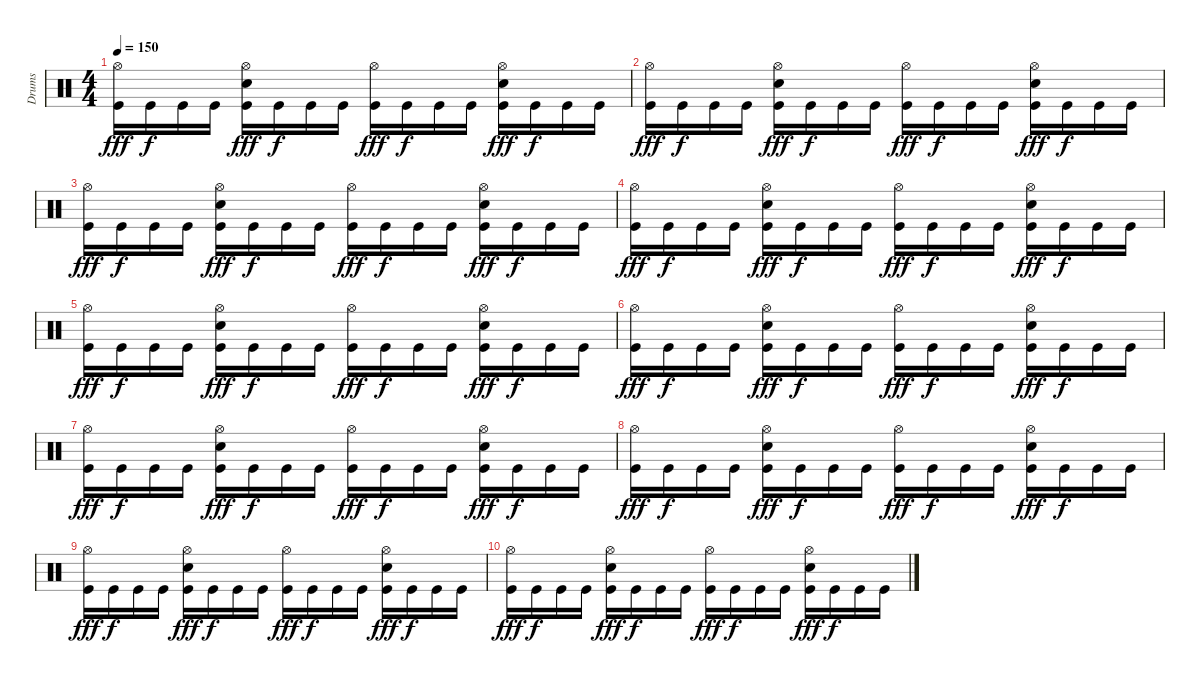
\track ("Drums" "Drums") {instrument percussion}
\staff {score}
\articulation defaults
\ts (4 4)
\tempo 150
\clef neutral
\ks c
("Hi-Hat (open)" "Kick (hit)").16{dy fff} "Kick (hit)".16{dy f} "Kick (hit)".16 "Kick (hit)".16 ("Hi-Hat (open)" "Snare (hit) 2" "Kick (hit)").16{dy fff} "Kick (hit)".16{dy f} "Kick (hit)".16 "Kick (hit)".16 ("Hi-Hat (open)" "Kick (hit)").16{dy fff} "Kick (hit)".16{dy f} "Kick (hit)".16 "Kick (hit)".16 ("Hi-Hat (open)" "Snare (hit) 2" "Kick (hit)").16{dy fff} "Kick (hit)".16{dy f} "Kick (hit)".16 "Kick (hit)".16 |
("Hi-Hat (open)" "Kick (hit)").16{dy fff} "Kick (hit)".16{dy f} "Kick (hit)".16 "Kick (hit)".16 ("Hi-Hat (open)" "Snare (hit) 2" "Kick (hit)").16{dy fff} "Kick (hit)".16{dy f} "Kick (hit)".16 "Kick (hit)".16 ("Hi-Hat (open)" "Kick (hit)").16{dy fff} "Kick (hit)".16{dy f} "Kick (hit)".16 "Kick (hit)".16 ("Hi-Hat (open)" "Snare (hit) 2" "Kick (hit)").16{dy fff} "Kick (hit)".16{dy f} "Kick (hit)".16 "Kick (hit)".16 |
("Hi-Hat (open)" "Kick (hit)").16{dy fff} "Kick (hit)".16{dy f} "Kick (hit)".16 "Kick (hit)".16 ("Hi-Hat (open)" "Snare (hit) 2" "Kick (hit)").16{dy fff} "Kick (hit)".16{dy f} "Kick (hit)".16 "Kick (hit)".16 ("Hi-Hat (open)" "Kick (hit)").16{dy fff} "Kick (hit)".16{dy f} "Kick (hit)".16 "Kick (hit)".16 ("Hi-Hat (open)" "Snare (hit) 2" "Kick (hit)").16{dy fff} "Kick (hit)".16{dy f} "Kick (hit)".16 "Kick (hit)".16 |
("Hi-Hat (open)" "Kick (hit)").16{dy fff} "Kick (hit)".16{dy f} "Kick (hit)".16 "Kick (hit)".16 ("Hi-Hat (open)" "Snare (hit) 2" "Kick (hit)").16{dy fff} "Kick (hit)".16{dy f} "Kick (hit)".16 "Kick (hit)".16 ("Hi-Hat (open)" "Kick (hit)").16{dy fff} "Kick (hit)".16{dy f} "Kick (hit)".16 "Kick (hit)".16 ("Hi-Hat (open)" "Snare (hit) 2" "Kick (hit)").16{dy fff} "Kick (hit)".16{dy f} "Kick (hit)".16 "Kick (hit)".16 |
("Hi-Hat (open)" "Kick (hit)").16{dy fff} "Kick (hit)".16{dy f} "Kick (hit)".16 "Kick (hit)".16 ("Hi-Hat (open)" "Snare (hit) 2" "Kick (hit)").16{dy fff} "Kick (hit)".16{dy f} "Kick (hit)".16 "Kick (hit)".16 ("Hi-Hat (open)" "Kick (hit)").16{dy fff} "Kick (hit)".16{dy f} "Kick (hit)".16 "Kick (hit)".16 ("Hi-Hat (open)" "Snare (hit) 2" "Kick (hit)").16{dy fff} "Kick (hit)".16{dy f} "Kick (hit)".16 "Kick (hit)".16 |
("Hi-Hat (open)" "Kick (hit)").16{dy fff} "Kick (hit)".16{dy f} "Kick (hit)".16 "Kick (hit)".16 ("Hi-Hat (open)" "Snare (hit) 2" "Kick (hit)").16{dy fff} "Kick (hit)".16{dy f} "Kick (hit)".16 "Kick (hit)".16 ("Hi-Hat (open)" "Kick (hit)").16{dy fff} "Kick (hit)".16{dy f} "Kick (hit)".16 "Kick (hit)".16 ("Hi-Hat (open)" "Snare (hit) 2" "Kick (hit)").16{dy fff} "Kick (hit)".16{dy f} "Kick (hit)".16 "Kick (hit)".16 |
("Hi-Hat (open)" "Kick (hit)").16{dy fff} "Kick (hit)".16{dy f} "Kick (hit)".16 "Kick (hit)".16 ("Hi-Hat (open)" "Snare (hit) 2" "Kick (hit)").16{dy fff} "Kick (hit)".16{dy f} "Kick (hit)".16 "Kick (hit)".16 ("Hi-Hat (open)" "Kick (hit)").16{dy fff} "Kick (hit)".16{dy f} "Kick (hit)".16 "Kick (hit)".16 ("Hi-Hat (open)" "Snare (hit) 2" "Kick (hit)").16{dy fff} "Kick (hit)".16{dy f} "Kick (hit)".16 "Kick (hit)".16 |
("Hi-Hat (open)" "Kick (hit)").16{dy fff} "Kick (hit)".16{dy f} "Kick (hit)".16 "Kick (hit)".16 ("Hi-Hat (open)" "Snare (hit) 2" "Kick (hit)").16{dy fff} "Kick (hit)".16{dy f} "Kick (hit)".16 "Kick (hit)".16 ("Hi-Hat (open)" "Kick (hit)").16{dy fff} "Kick (hit)".16{dy f} "Kick (hit)".16 "Kick (hit)".16 ("Hi-Hat (open)" "Snare (hit) 2" "Kick (hit)").16{dy fff} "Kick (hit)".16{dy f} "Kick (hit)".16 "Kick (hit)".16 |
("Hi-Hat (open)" "Kick (hit)").16{dy fff} "Kick (hit)".16{dy f} "Kick (hit)".16 "Kick (hit)".16 ("Hi-Hat (open)" "Snare (hit) 2" "Kick (hit)").16{dy fff} "Kick (hit)".16{dy f} "Kick (hit)".16 "Kick (hit)".16 ("Hi-Hat (open)" "Kick (hit)").16{dy fff} "Kick (hit)".16{dy f} "Kick (hit)".16 "Kick (hit)".16 ("Hi-Hat (open)" "Snare (hit) 2" "Kick (hit)").16{dy fff} "Kick (hit)".16{dy f} "Kick (hit)".16 "Kick (hit)".16 |
("Hi-Hat (open)" "Kick (hit)").16{dy fff} "Kick (hit)".16{dy f} "Kick (hit)".16 "Kick (hit)".16 ("Hi-Hat (open)" "Snare (hit) 2" "Kick (hit)").16{dy fff} "Kick (hit)".16{dy f} "Kick (hit)".16 "Kick (hit)".16 ("Hi-Hat (open)" "Kick (hit)").16{dy fff} "Kick (hit)".16{dy f} "Kick (hit)".16 "Kick (hit)".16 ("Hi-Hat (open)" "Snare (hit) 2" "Kick (hit)").16{dy fff} "Kick (hit)".16{dy f} "Kick (hit)".16 "Kick (hit)".16
